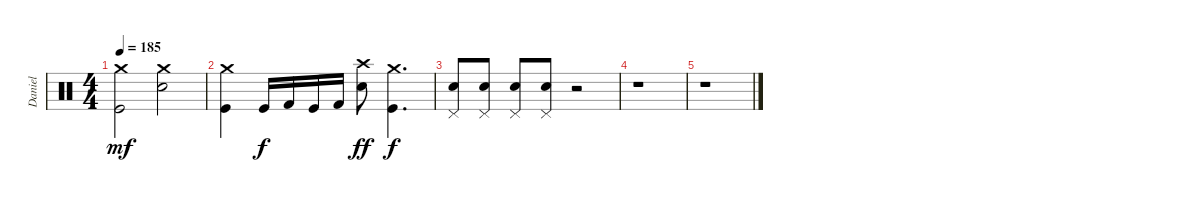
\track ("Daniel" "Daniel") {instrument percussion}
\staff {score}
\articulation defaults
\ts (4 4)
\tempo 185
\clef neutral
\ks c
("Kick (hit)" "Crash medium (hit)").2{dy mf} ("Electric Snare (hit)" "Crash medium (hit)").2 |
("Kick (hit)" "Crash medium (hit)").4 "Kick (hit)".16{dy f} "Kick (hit) 2".16 "Kick (hit)".16 "Kick (hit) 2".16 ("Electric Snare (hit)" "Crash high (hit)").8{dy ff} ("Kick (hit)" "Crash medium (hit)").4{d dy f} |
("Electric Snare (hit)" "Pedal Hi-Hat (hit)").8 ("Electric Snare (hit)" "Pedal Hi-Hat (hit)").8 ("Electric Snare (hit)" "Pedal Hi-Hat (hit)").8 ("Electric Snare (hit)" "Pedal Hi-Hat (hit)").8 r.2 |
r.1 |
r.1
